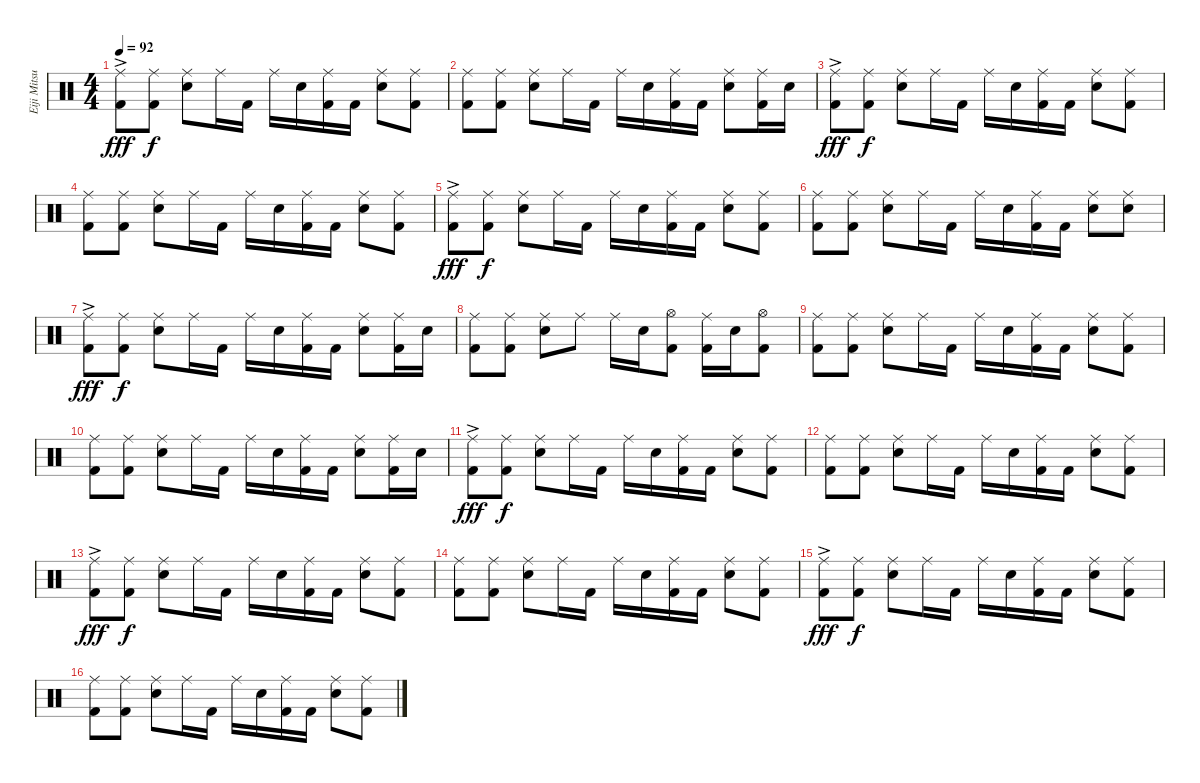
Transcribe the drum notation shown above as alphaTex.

\track ("Eiji Mitsuzono " "Eiji Mitsu") {instrument percussion}
\staff {score}
\articulation defaults
\ts (4 4)
\tempo 92
\clef neutral
\ks c
("Ride (middle)"{ac} "Kick (hit) 2").8{dy fff} ("Ride (middle)" "Kick (hit) 2").8{dy f} ("Ride (middle)" "Snare (hit) 2").8 "Ride (middle)".16 "Kick (hit) 2".16 "Ride (middle)".16 "Snare (hit) 2".16 ("Ride (middle)" "Kick (hit) 2").16 "Kick (hit) 2".16 ("Ride (middle)" "Snare (hit) 2").8 ("Ride (middle)" "Kick (hit) 2").8 |
("Ride (middle)" "Kick (hit) 2").8 ("Ride (middle)" "Kick (hit) 2").8 ("Ride (middle)" "Snare (hit) 2").8 "Ride (middle)".16 "Kick (hit) 2".16 "Ride (middle)".16 "Snare (hit) 2".16 ("Ride (middle)" "Kick (hit) 2").16 "Kick (hit) 2".16 ("Ride (middle)" "Snare (hit) 2").8 ("Ride (middle)" "Kick (hit) 2").16 "Snare (hit) 2".16 |
("Ride (middle)"{ac} "Kick (hit) 2").8{dy fff} ("Ride (middle)" "Kick (hit) 2").8{dy f} ("Ride (middle)" "Snare (hit) 2").8 "Ride (middle)".16 "Kick (hit) 2".16 "Ride (middle)".16 "Snare (hit) 2".16 ("Ride (middle)" "Kick (hit) 2").16 "Kick (hit) 2".16 ("Ride (middle)" "Snare (hit) 2").8 ("Ride (middle)" "Kick (hit) 2").8 |
("Ride (middle)" "Kick (hit) 2").8 ("Ride (middle)" "Kick (hit) 2").8 ("Ride (middle)" "Snare (hit) 2").8 "Ride (middle)".16 "Kick (hit) 2".16 "Ride (middle)".16 "Snare (hit) 2".16 ("Ride (middle)" "Kick (hit) 2").16 "Kick (hit) 2".16 ("Ride (middle)" "Snare (hit) 2").8 ("Ride (middle)" "Kick (hit) 2").8 |
("Ride (middle)"{ac} "Kick (hit) 2").8{dy fff} ("Ride (middle)" "Kick (hit) 2").8{dy f} ("Ride (middle)" "Snare (hit) 2").8 "Ride (middle)".16 "Kick (hit) 2".16 "Ride (middle)".16 "Snare (hit) 2".16 ("Ride (middle)" "Kick (hit) 2").16 "Kick (hit) 2".16 ("Ride (middle)" "Snare (hit) 2").8 ("Ride (middle)" "Kick (hit) 2").8 |
("Ride (middle)" "Kick (hit) 2").8 ("Ride (middle)" "Kick (hit) 2").8 ("Ride (middle)" "Snare (hit) 2").8 "Ride (middle)".16 "Kick (hit) 2".16 "Ride (middle)".16 "Snare (hit) 2".16 ("Ride (middle)" "Kick (hit) 2").16 "Kick (hit) 2".16 ("Ride (middle)" "Snare (hit) 2").8 ("Ride (middle)" "Snare (hit) 2").8 |
("Ride (middle)"{ac} "Kick (hit) 2").8{dy fff} ("Ride (middle)" "Kick (hit) 2").8{dy f} ("Ride (middle)" "Snare (hit) 2").8 "Ride (middle)".16 "Kick (hit) 2".16 "Ride (middle)".16 "Snare (hit) 2".16 ("Ride (middle)" "Kick (hit) 2").16 "Kick (hit) 2".16 ("Ride (middle)" "Snare (hit) 2").8 ("Ride (middle)" "Kick (hit) 2").16 "Snare (hit) 2".16 |
("Ride (middle)" "Kick (hit) 2").8 ("Ride (middle)" "Kick (hit) 2").8 ("Ride (middle)" "Snare (hit) 2").8 "Ride (middle)".8 "Ride (middle)".16 "Snare (hit) 2".16 ("Hi-Hat (open)" "Kick (hit) 2").8 ("Ride (middle)" "Kick (hit) 2").16 "Snare (hit) 2".16 ("Hi-Hat (open)" "Kick (hit) 2").8 |
("Ride (middle)" "Kick (hit) 2").8 ("Ride (middle)" "Kick (hit) 2").8 ("Ride (middle)" "Snare (hit) 2").8 "Ride (middle)".16 "Kick (hit) 2".16 "Ride (middle)".16 "Snare (hit) 2".16 ("Ride (middle)" "Kick (hit) 2").16 "Kick (hit) 2".16 ("Ride (middle)" "Snare (hit) 2").8 ("Ride (middle)" "Kick (hit) 2").8 |
("Ride (middle)" "Kick (hit) 2").8 ("Ride (middle)" "Kick (hit) 2").8 ("Ride (middle)" "Snare (hit) 2").8 "Ride (middle)".16 "Kick (hit) 2".16 "Ride (middle)".16 "Snare (hit) 2".16 ("Ride (middle)" "Kick (hit) 2").16 "Kick (hit) 2".16 ("Ride (middle)" "Snare (hit) 2").8 ("Ride (middle)" "Kick (hit) 2").16 "Snare (hit) 2".16 |
("Ride (middle)"{ac} "Kick (hit) 2").8{dy fff} ("Ride (middle)" "Kick (hit) 2").8{dy f} ("Ride (middle)" "Snare (hit) 2").8 "Ride (middle)".16 "Kick (hit) 2".16 "Ride (middle)".16 "Snare (hit) 2".16 ("Ride (middle)" "Kick (hit) 2").16 "Kick (hit) 2".16 ("Ride (middle)" "Snare (hit) 2").8 ("Ride (middle)" "Kick (hit) 2").8 |
("Ride (middle)" "Kick (hit) 2").8 ("Ride (middle)" "Kick (hit) 2").8 ("Ride (middle)" "Snare (hit) 2").8 "Ride (middle)".16 "Kick (hit) 2".16 "Ride (middle)".16 "Snare (hit) 2".16 ("Ride (middle)" "Kick (hit) 2").16 "Kick (hit) 2".16 ("Ride (middle)" "Snare (hit) 2").8 ("Ride (middle)" "Kick (hit) 2").8 |
("Ride (middle)"{ac} "Kick (hit) 2").8{dy fff} ("Ride (middle)" "Kick (hit) 2").8{dy f} ("Ride (middle)" "Snare (hit) 2").8 "Ride (middle)".16 "Kick (hit) 2".16 "Ride (middle)".16 "Snare (hit) 2".16 ("Ride (middle)" "Kick (hit) 2").16 "Kick (hit) 2".16 ("Ride (middle)" "Snare (hit) 2").8 ("Ride (middle)" "Kick (hit) 2").8 |
("Ride (middle)" "Kick (hit) 2").8 ("Ride (middle)" "Kick (hit) 2").8 ("Ride (middle)" "Snare (hit) 2").8 "Ride (middle)".16 "Kick (hit) 2".16 "Ride (middle)".16 "Snare (hit) 2".16 ("Ride (middle)" "Kick (hit) 2").16 "Kick (hit) 2".16 ("Ride (middle)" "Snare (hit) 2").8 ("Ride (middle)" "Kick (hit) 2").8 |
("Ride (middle)"{ac} "Kick (hit) 2").8{dy fff} ("Ride (middle)" "Kick (hit) 2").8{dy f} ("Ride (middle)" "Snare (hit) 2").8 "Ride (middle)".16 "Kick (hit) 2".16 "Ride (middle)".16 "Snare (hit) 2".16 ("Ride (middle)" "Kick (hit) 2").16 "Kick (hit) 2".16 ("Ride (middle)" "Snare (hit) 2").8 ("Ride (middle)" "Kick (hit) 2").8 |
("Ride (middle)" "Kick (hit) 2").8 ("Ride (middle)" "Kick (hit) 2").8 ("Ride (middle)" "Snare (hit) 2").8 "Ride (middle)".16 "Kick (hit) 2".16 "Ride (middle)".16 "Snare (hit) 2".16 ("Ride (middle)" "Kick (hit) 2").16 "Kick (hit) 2".16 ("Ride (middle)" "Snare (hit) 2").8 ("Ride (middle)" "Kick (hit) 2").8
